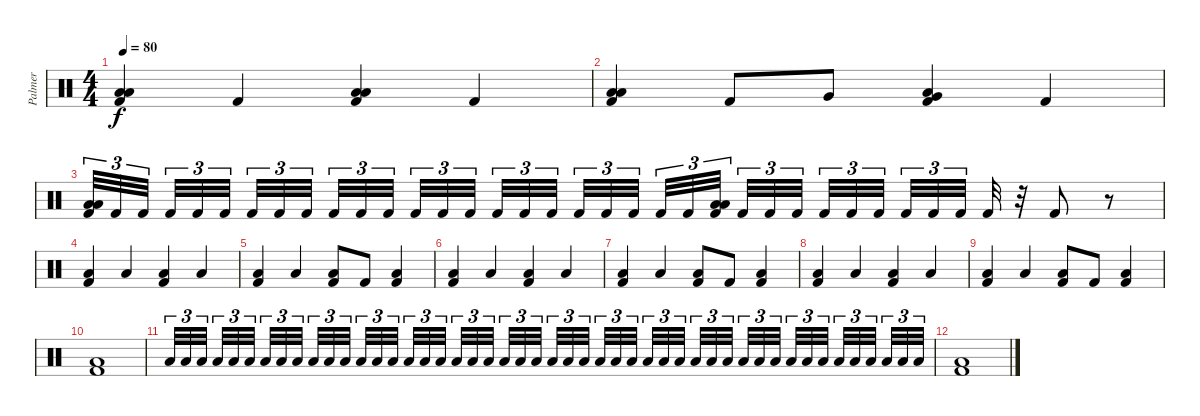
\track ("Palmer" "Palmer") {instrument percussion}
\staff {score}
\articulation defaults
\ts (4 4)
\tempo 80
\clef neutral
\ks c
("Low Floor Tom (hit)" "Low Tom (hit)" "Kick (hit) 2").4{dy f} "Kick (hit) 2".4 ("Low Floor Tom (hit)" "Low Tom (hit)" "Kick (hit) 2").4 "Kick (hit) 2".4 |
("Low Floor Tom (hit)" "Low Tom (hit)" "Kick (hit) 2").4 "Kick (hit) 2".8 "Very Low Tom (hit)".8 ("Very Low Tom (hit)" "Low Floor Tom (hit)" "Kick (hit) 2").4 "Kick (hit) 2".4 |
("Low Floor Tom (hit)" "Low Tom (hit)" "Kick (hit) 2").32{tu (3 2)} "Kick (hit) 2".32{tu (3 2)} "Kick (hit) 2".32{tu (3 2)} "Kick (hit) 2".32{tu (3 2)} "Kick (hit) 2".32{tu (3 2)} "Kick (hit) 2".32{tu (3 2)} "Kick (hit) 2".32{tu (3 2)} "Kick (hit) 2".32{tu (3 2)} "Kick (hit) 2".32{tu (3 2)} "Kick (hit) 2".32{tu (3 2)} "Kick (hit) 2".32{tu (3 2)} "Kick (hit) 2".32{tu (3 2)} "Kick (hit) 2".32{tu (3 2)} "Kick (hit) 2".32{tu (3 2)} "Kick (hit) 2".32{tu (3 2)} "Kick (hit) 2".32{tu (3 2)} "Kick (hit) 2".32{tu (3 2)} "Kick (hit) 2".32{tu (3 2)} "Kick (hit) 2".32{tu (3 2)} "Kick (hit) 2".32{tu (3 2)} "Kick (hit) 2".32{tu (3 2)} "Kick (hit) 2".32{tu (3 2)} "Kick (hit) 2".32{tu (3 2)} ("Low Floor Tom (hit)" "Low Tom (hit)" "Kick (hit) 2").32{tu (3 2)} "Kick (hit) 2".32{tu (3 2)} "Kick (hit) 2".32{tu (3 2)} "Kick (hit) 2".32{tu (3 2)} "Kick (hit) 2".32{tu (3 2)} "Kick (hit) 2".32{tu (3 2)} "Kick (hit) 2".32{tu (3 2)} "Kick (hit) 2".32{tu (3 2)} "Kick (hit) 2".32{tu (3 2)} "Kick (hit) 2".32{tu (3 2)} "Kick (hit) 2".32 r.32 "Kick (hit) 2".8 r.8 |
("Low Tom (hit)" "Kick (hit) 2").4 "Low Floor Tom (hit)".4 ("Low Floor Tom (hit)" "Kick (hit) 2").4 "Low Floor Tom (hit)".4 |
("Low Tom (hit)" "Kick (hit) 2").4 "Low Floor Tom (hit)".4 ("Low Floor Tom (hit)" "Kick (hit) 2").8 "Kick (hit) 2".8 ("Low Floor Tom (hit)" "Kick (hit) 2").4 |
("Low Tom (hit)" "Kick (hit) 2").4 "Low Floor Tom (hit)".4 ("Low Floor Tom (hit)" "Kick (hit) 2").4 "Low Floor Tom (hit)".4 |
("Low Tom (hit)" "Kick (hit) 2").4 "Low Floor Tom (hit)".4 ("Low Floor Tom (hit)" "Kick (hit) 2").8 "Kick (hit) 2".8 ("Low Floor Tom (hit)" "Kick (hit) 2").4 |
("Low Tom (hit)" "Kick (hit) 2").4 "Low Floor Tom (hit)".4 ("Low Floor Tom (hit)" "Kick (hit) 2").4 "Low Floor Tom (hit)".4 |
("Low Tom (hit)" "Kick (hit) 2").4 "Low Floor Tom (hit)".4 ("Low Floor Tom (hit)" "Kick (hit) 2").8 "Kick (hit) 2".8 ("Low Floor Tom (hit)" "Kick (hit) 2").4 |
("Low Tom (hit)" "Kick (hit) 2").1 |
"Low Floor Tom (hit)".32{tu (3 2)} "Low Floor Tom (hit)".32{tu (3 2)} "Low Floor Tom (hit)".32{tu (3 2)} "Low Floor Tom (hit)".32{tu (3 2)} "Low Floor Tom (hit)".32{tu (3 2)} "Low Floor Tom (hit)".32{tu (3 2)} "Low Floor Tom (hit)".32{tu (3 2)} "Low Floor Tom (hit)".32{tu (3 2)} "Low Floor Tom (hit)".32{tu (3 2)} "Low Floor Tom (hit)".32{tu (3 2)} "Low Floor Tom (hit)".32{tu (3 2)} "Low Floor Tom (hit)".32{tu (3 2)} "Low Floor Tom (hit)".32{tu (3 2)} "Low Floor Tom (hit)".32{tu (3 2)} "Low Floor Tom (hit)".32{tu (3 2)} "Low Floor Tom (hit)".32{tu (3 2)} "Low Floor Tom (hit)".32{tu (3 2)} "Low Floor Tom (hit)".32{tu (3 2)} "Low Floor Tom (hit)".32{tu (3 2)} "Low Floor Tom (hit)".32{tu (3 2)} "Low Floor Tom (hit)".32{tu (3 2)} "Low Floor Tom (hit)".32{tu (3 2)} "Low Floor Tom (hit)".32{tu (3 2)} "Low Floor Tom (hit)".32{tu (3 2)} "Low Floor Tom (hit)".32{tu (3 2)} "Low Floor Tom (hit)".32{tu (3 2)} "Low Floor Tom (hit)".32{tu (3 2)} "Low Floor Tom (hit)".32{tu (3 2)} "Low Floor Tom (hit)".32{tu (3 2)} "Low Floor Tom (hit)".32{tu (3 2)} "Low Floor Tom (hit)".32{tu (3 2)} "Low Floor Tom (hit)".32{tu (3 2)} "Low Floor Tom (hit)".32{tu (3 2)} "Low Floor Tom (hit)".32{tu (3 2)} "Low Floor Tom (hit)".32{tu (3 2)} "Low Floor Tom (hit)".32{tu (3 2)} "Low Floor Tom (hit)".32{tu (3 2)} "Low Floor Tom (hit)".32{tu (3 2)} "Low Floor Tom (hit)".32{tu (3 2)} "Low Floor Tom (hit)".32{tu (3 2)} "Low Floor Tom (hit)".32{tu (3 2)} "Low Floor Tom (hit)".32{tu (3 2)} "Low Floor Tom (hit)".32{tu (3 2)} "Low Floor Tom (hit)".32{tu (3 2)} "Low Floor Tom (hit)".32{tu (3 2)} "Low Floor Tom (hit)".32{tu (3 2)} "Low Floor Tom (hit)".32{tu (3 2)} "Low Floor Tom (hit)".32{tu (3 2)} |
("Low Tom (hit)" "Kick (hit) 2").1
